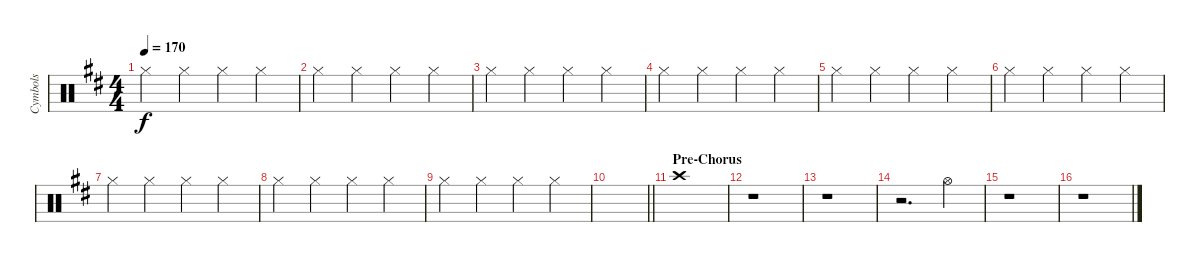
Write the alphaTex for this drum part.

\track ("Cymbols" "Cymbols") {instrument percussion}
\staff {score}
\articulation defaults
\ts (4 4)
\tempo 170
\clef neutral
\ks d "Hi-Hat (closed)".4{dy f} "Hi-Hat (closed)".4 "Hi-Hat (closed)".4 "Hi-Hat (closed)".4
|
"Hi-Hat (closed)".4 "Hi-Hat (closed)".4 "Hi-Hat (closed)".4 "Hi-Hat (closed)".4 |
"Hi-Hat (closed)".4 "Hi-Hat (closed)".4 "Hi-Hat (closed)".4 "Hi-Hat (closed)".4 |
"Hi-Hat (closed)".4 "Hi-Hat (closed)".4 "Hi-Hat (closed)".4 "Hi-Hat (closed)".4 |
"Hi-Hat (closed)".4 "Hi-Hat (closed)".4 "Hi-Hat (closed)".4 "Hi-Hat (closed)".4 |
"Hi-Hat (closed)".4 "Hi-Hat (closed)".4 "Hi-Hat (closed)".4 "Hi-Hat (closed)".4 |
"Hi-Hat (closed)".4 "Hi-Hat (closed)".4 "Hi-Hat (closed)".4 "Hi-Hat (closed)".4 |
"Hi-Hat (closed)".4 "Hi-Hat (closed)".4 "Hi-Hat (closed)".4 "Hi-Hat (closed)".4 |
"Hi-Hat (closed)".4 "Hi-Hat (closed)".4 "Hi-Hat (closed)".4 "Hi-Hat (closed)".4 |
\barLineRight lightlight
|
\section ("" "Pre-Chorus")
"Crash high (hit)".1 |
r.1 |
r.1 |
r.2{d} "Hi-Hat (open)".4 |
r.1 |
r.1
